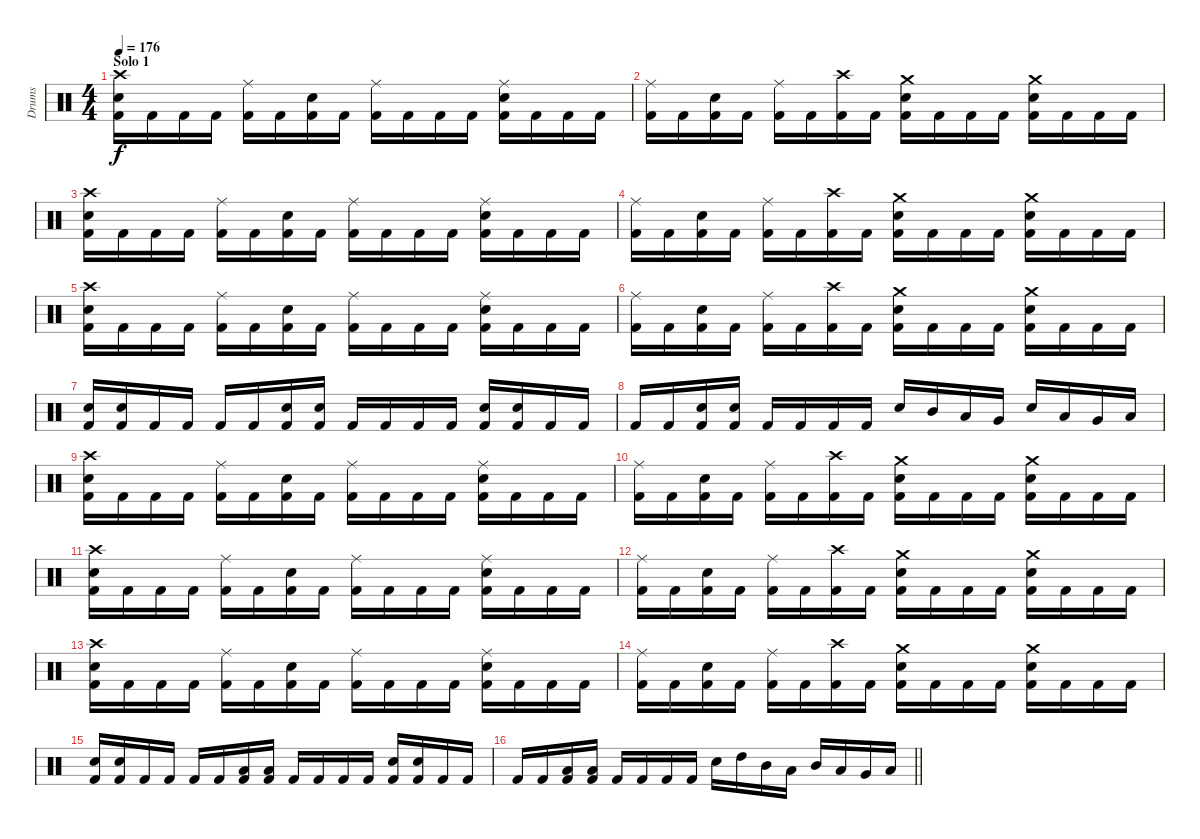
\track ("Drums" "Drums") {instrument percussion}
\staff {score}
\articulation defaults
\ts (4 4)
\section ("" "Solo 1")
\tempo 176
\clef neutral
\ks c
("Crash high (hit)" "Snare (hit) 2" "Kick (hit) 2").16{dy f} "Kick (hit) 2".16 "Kick (hit) 2".16 "Kick (hit) 2".16 ("Ride (middle)" "Kick (hit) 2").16 "Kick (hit) 2".16 ("Snare (hit) 2" "Kick (hit) 2").16 "Kick (hit) 2".16 ("Ride (middle)" "Kick (hit) 2").16 "Kick (hit) 2".16 "Kick (hit) 2".16 "Kick (hit) 2".16 ("Ride (middle)" "Snare (hit) 2" "Kick (hit) 2").16 "Kick (hit) 2".16 "Kick (hit) 2".16 "Kick (hit) 2".16 |
("Ride (middle)" "Kick (hit) 2").16 "Kick (hit) 2".16 ("Snare (hit) 2" "Kick (hit) 2").16 "Kick (hit) 2".16 ("Ride (middle)" "Kick (hit) 2").16 "Kick (hit) 2".16 ("Crash high (hit)" "Kick (hit) 2").16 "Kick (hit) 2".16 ("Crash medium (hit)" "Snare (hit) 2" "Kick (hit) 2").16 "Kick (hit) 2".16 "Kick (hit) 2".16 "Kick (hit) 2".16 ("Crash medium (hit)" "Snare (hit) 2" "Kick (hit) 2").16 "Kick (hit) 2".16 "Kick (hit) 2".16 "Kick (hit) 2".16 |
("Crash high (hit)" "Snare (hit) 2" "Kick (hit) 2").16 "Kick (hit) 2".16 "Kick (hit) 2".16 "Kick (hit) 2".16 ("Ride (middle)" "Kick (hit) 2").16 "Kick (hit) 2".16 ("Snare (hit) 2" "Kick (hit) 2").16 "Kick (hit) 2".16 ("Ride (middle)" "Kick (hit) 2").16 "Kick (hit) 2".16 "Kick (hit) 2".16 "Kick (hit) 2".16 ("Ride (middle)" "Snare (hit) 2" "Kick (hit) 2").16 "Kick (hit) 2".16 "Kick (hit) 2".16 "Kick (hit) 2".16 |
("Ride (middle)" "Kick (hit) 2").16 "Kick (hit) 2".16 ("Snare (hit) 2" "Kick (hit) 2").16 "Kick (hit) 2".16 ("Ride (middle)" "Kick (hit) 2").16 "Kick (hit) 2".16 ("Crash high (hit)" "Kick (hit) 2").16 "Kick (hit) 2".16 ("Crash medium (hit)" "Snare (hit) 2" "Kick (hit) 2").16 "Kick (hit) 2".16 "Kick (hit) 2".16 "Kick (hit) 2".16 ("Crash medium (hit)" "Snare (hit) 2" "Kick (hit) 2").16 "Kick (hit) 2".16 "Kick (hit) 2".16 "Kick (hit) 2".16 |
("Crash high (hit)" "Snare (hit) 2" "Kick (hit) 2").16 "Kick (hit) 2".16 "Kick (hit) 2".16 "Kick (hit) 2".16 ("Ride (middle)" "Kick (hit) 2").16 "Kick (hit) 2".16 ("Snare (hit) 2" "Kick (hit) 2").16 "Kick (hit) 2".16 ("Ride (middle)" "Kick (hit) 2").16 "Kick (hit) 2".16 "Kick (hit) 2".16 "Kick (hit) 2".16 ("Ride (middle)" "Snare (hit) 2" "Kick (hit) 2").16 "Kick (hit) 2".16 "Kick (hit) 2".16 "Kick (hit) 2".16 |
("Ride (middle)" "Kick (hit) 2").16 "Kick (hit) 2".16 ("Snare (hit) 2" "Kick (hit) 2").16 "Kick (hit) 2".16 ("Ride (middle)" "Kick (hit) 2").16 "Kick (hit) 2".16 ("Crash high (hit)" "Kick (hit) 2").16 "Kick (hit) 2".16 ("Crash medium (hit)" "Snare (hit) 2" "Kick (hit) 2").16 "Kick (hit) 2".16 "Kick (hit) 2".16 "Kick (hit) 2".16 ("Crash medium (hit)" "Snare (hit) 2" "Kick (hit) 2").16 "Kick (hit) 2".16 "Kick (hit) 2".16 "Kick (hit) 2".16 |
("Snare (hit) 2" "Kick (hit) 2").16 ("Snare (hit) 2" "Kick (hit) 2").16 "Kick (hit) 2".16 "Kick (hit) 2".16 "Kick (hit) 2".16 "Kick (hit) 2".16 ("Snare (hit) 2" "Kick (hit) 2").16 ("Snare (hit) 2" "Kick (hit) 2").16 "Kick (hit) 2".16 "Kick (hit) 2".16 "Kick (hit) 2".16 "Kick (hit) 2".16 ("Snare (hit) 2" "Kick (hit) 2").16 ("Snare (hit) 2" "Kick (hit) 2").16 "Kick (hit) 2".16 "Kick (hit) 2".16 |
"Kick (hit) 2".16 "Kick (hit) 2".16 ("Snare (hit) 2" "Kick (hit) 2").16 ("Snare (hit) 2" "Kick (hit) 2").16 "Kick (hit) 2".16 "Kick (hit) 2".16 "Kick (hit) 2".16 "Kick (hit) 2".16 "Snare (hit) 2".16 "Mid Tom (hit)".16 "Low Tom (hit)".16 "Very Low Tom (hit)".16 "Snare (hit) 2".16 "Low Tom (hit)".16 "Very Low Tom (hit)".16 "Low Floor Tom (hit)".16 |
("Crash high (hit)" "Snare (hit) 2" "Kick (hit) 2").16 "Kick (hit) 2".16 "Kick (hit) 2".16 "Kick (hit) 2".16 ("Ride (middle)" "Kick (hit) 2").16 "Kick (hit) 2".16 ("Snare (hit) 2" "Kick (hit) 2").16 "Kick (hit) 2".16 ("Ride (middle)" "Kick (hit) 2").16 "Kick (hit) 2".16 "Kick (hit) 2".16 "Kick (hit) 2".16 ("Ride (middle)" "Snare (hit) 2" "Kick (hit) 2").16 "Kick (hit) 2".16 "Kick (hit) 2".16 "Kick (hit) 2".16 |
("Ride (middle)" "Kick (hit) 2").16 "Kick (hit) 2".16 ("Snare (hit) 2" "Kick (hit) 2").16 "Kick (hit) 2".16 ("Ride (middle)" "Kick (hit) 2").16 "Kick (hit) 2".16 ("Crash high (hit)" "Kick (hit) 2").16 "Kick (hit) 2".16 ("Crash medium (hit)" "Snare (hit) 2" "Kick (hit) 2").16 "Kick (hit) 2".16 "Kick (hit) 2".16 "Kick (hit) 2".16 ("Crash medium (hit)" "Snare (hit) 2" "Kick (hit) 2").16 "Kick (hit) 2".16 "Kick (hit) 2".16 "Kick (hit) 2".16 |
("Crash high (hit)" "Snare (hit) 2" "Kick (hit) 2").16 "Kick (hit) 2".16 "Kick (hit) 2".16 "Kick (hit) 2".16 ("Ride (middle)" "Kick (hit) 2").16 "Kick (hit) 2".16 ("Snare (hit) 2" "Kick (hit) 2").16 "Kick (hit) 2".16 ("Ride (middle)" "Kick (hit) 2").16 "Kick (hit) 2".16 "Kick (hit) 2".16 "Kick (hit) 2".16 ("Ride (middle)" "Snare (hit) 2" "Kick (hit) 2").16 "Kick (hit) 2".16 "Kick (hit) 2".16 "Kick (hit) 2".16 |
("Ride (middle)" "Kick (hit) 2").16 "Kick (hit) 2".16 ("Snare (hit) 2" "Kick (hit) 2").16 "Kick (hit) 2".16 ("Ride (middle)" "Kick (hit) 2").16 "Kick (hit) 2".16 ("Crash high (hit)" "Kick (hit) 2").16 "Kick (hit) 2".16 ("Crash medium (hit)" "Snare (hit) 2" "Kick (hit) 2").16 "Kick (hit) 2".16 "Kick (hit) 2".16 "Kick (hit) 2".16 ("Crash medium (hit)" "Snare (hit) 2" "Kick (hit) 2").16 "Kick (hit) 2".16 "Kick (hit) 2".16 "Kick (hit) 2".16 |
("Crash high (hit)" "Snare (hit) 2" "Kick (hit) 2").16 "Kick (hit) 2".16 "Kick (hit) 2".16 "Kick (hit) 2".16 ("Ride (middle)" "Kick (hit) 2").16 "Kick (hit) 2".16 ("Snare (hit) 2" "Kick (hit) 2").16 "Kick (hit) 2".16 ("Ride (middle)" "Kick (hit) 2").16 "Kick (hit) 2".16 "Kick (hit) 2".16 "Kick (hit) 2".16 ("Ride (middle)" "Snare (hit) 2" "Kick (hit) 2").16 "Kick (hit) 2".16 "Kick (hit) 2".16 "Kick (hit) 2".16 |
("Ride (middle)" "Kick (hit) 2").16 "Kick (hit) 2".16 ("Snare (hit) 2" "Kick (hit) 2").16 "Kick (hit) 2".16 ("Ride (middle)" "Kick (hit) 2").16 "Kick (hit) 2".16 ("Crash high (hit)" "Kick (hit) 2").16 "Kick (hit) 2".16 ("Crash medium (hit)" "Snare (hit) 2" "Kick (hit) 2").16 "Kick (hit) 2".16 "Kick (hit) 2".16 "Kick (hit) 2".16 ("Crash medium (hit)" "Snare (hit) 2" "Kick (hit) 2").16 "Kick (hit) 2".16 "Kick (hit) 2".16 "Kick (hit) 2".16 |
("Snare (hit) 2" "Kick (hit) 2").16 ("Snare (hit) 2" "Kick (hit) 2").16 "Kick (hit) 2".16 "Kick (hit) 2".16 "Kick (hit) 2".16 "Kick (hit) 2".16 ("Low Tom (hit)" "Kick (hit) 2").16 ("Low Tom (hit)" "Kick (hit) 2").16 "Kick (hit) 2".16 "Kick (hit) 2".16 "Kick (hit) 2".16 "Kick (hit) 2".16 ("Snare (hit) 2" "Kick (hit) 2").16 ("Snare (hit) 2" "Kick (hit) 2").16 "Kick (hit) 2".16 "Kick (hit) 2".16 |
\barLineRight lightlight "Kick (hit) 2".16 "Kick (hit) 2".16
("Low Tom (hit)" "Kick (hit) 2").16 ("Low Tom (hit)" "Kick (hit) 2").16 "Kick (hit) 2".16 "Kick (hit) 2".16 "Kick (hit) 2".16 "Kick (hit) 2".16 "Snare (hit) 2".16 "High Tom (hit)".16 "Mid Tom (hit)".16 "Low Tom (hit)".16 "Mid Tom (hit)".16 "Low Tom (hit)".16 "Very Low Tom (hit)".16 "Low Floor Tom (hit)".16
